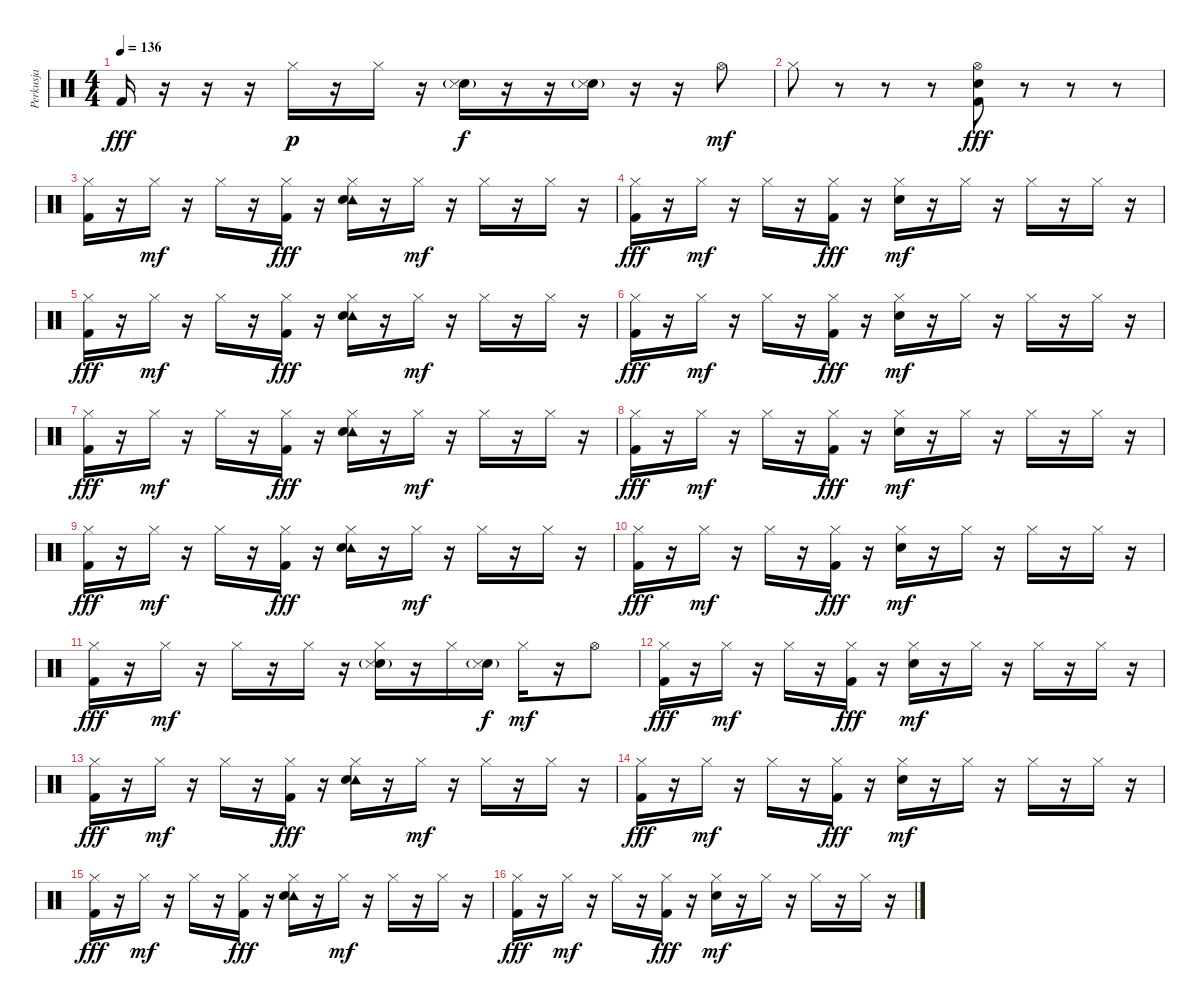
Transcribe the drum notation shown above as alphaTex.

\track ("Perkusja" "Perkusja") {instrument percussion}
\staff {score}
\articulation defaults
\ts (4 4)
\tempo 136
\clef neutral
\ks c "Kick (hit) 2".16{dy fff}
r.16 r.16 r.16 "Hi-Hat (closed)".16{dy p} r.16 "Hi-Hat (closed)".16 r.16 ("Snare (hit) 2"{g} "Snare (side stick) 3").16{dy f} r.16 r.16 ("Snare (hit) 2"{g} "Snare (side stick) 3").16 r.16 r.16 "Hi-Hat (open)".8{dy mf} |
"Hi-Hat (closed)".8 r.8 r.8 r.8 ("Hi-Hat (open)" "Snare (hit) 2" "Kick (hit) 2").8{dy fff} r.8 r.8 r.8 |
("Hi-Hat (closed)" "Kick (hit) 2").16 r.16 "Hi-Hat (closed)".16{dy mf} r.16 "Hi-Hat (closed)".16 r.16 ("Hi-Hat (closed)" "Kick (hit) 2").16{dy fff} r.16 ("Hi-Hat (closed)" "Tambourine (hit)" "Snare (hit) 2").16 r.16 "Hi-Hat (closed)".16{dy mf} r.16 "Hi-Hat (closed)".16 r.16 "Hi-Hat (closed)".16 r.16 |
("Hi-Hat (closed)" "Kick (hit) 2").16{dy fff} r.16 "Hi-Hat (closed)".16{dy mf} r.16 "Hi-Hat (closed)".16 r.16 ("Hi-Hat (closed)" "Kick (hit) 2").16{dy fff} r.16 ("Hi-Hat (closed)" "Snare (hit) 2").16{dy mf} r.16 "Hi-Hat (closed)".16 r.16 "Hi-Hat (closed)".16 r.16 "Hi-Hat (closed)".16 r.16 |
("Hi-Hat (closed)" "Kick (hit) 2").16{dy fff} r.16 "Hi-Hat (closed)".16{dy mf} r.16 "Hi-Hat (closed)".16 r.16 ("Hi-Hat (closed)" "Kick (hit) 2").16{dy fff} r.16 ("Hi-Hat (closed)" "Tambourine (hit)" "Snare (hit) 2").16 r.16 "Hi-Hat (closed)".16{dy mf} r.16 "Hi-Hat (closed)".16 r.16 "Hi-Hat (closed)".16 r.16 |
("Hi-Hat (closed)" "Kick (hit) 2").16{dy fff} r.16 "Hi-Hat (closed)".16{dy mf} r.16 "Hi-Hat (closed)".16 r.16 ("Hi-Hat (closed)" "Kick (hit) 2").16{dy fff} r.16 ("Hi-Hat (closed)" "Snare (hit) 2").16{dy mf} r.16 "Hi-Hat (closed)".16 r.16 "Hi-Hat (closed)".16 r.16 "Hi-Hat (closed)".16 r.16 |
("Hi-Hat (closed)" "Kick (hit) 2").16{dy fff} r.16 "Hi-Hat (closed)".16{dy mf} r.16 "Hi-Hat (closed)".16 r.16 ("Hi-Hat (closed)" "Kick (hit) 2").16{dy fff} r.16 ("Hi-Hat (closed)" "Tambourine (hit)" "Snare (hit) 2").16 r.16 "Hi-Hat (closed)".16{dy mf} r.16 "Hi-Hat (closed)".16 r.16 "Hi-Hat (closed)".16 r.16 |
("Hi-Hat (closed)" "Kick (hit) 2").16{dy fff} r.16 "Hi-Hat (closed)".16{dy mf} r.16 "Hi-Hat (closed)".16 r.16 ("Hi-Hat (closed)" "Kick (hit) 2").16{dy fff} r.16 ("Hi-Hat (closed)" "Snare (hit) 2").16{dy mf} r.16 "Hi-Hat (closed)".16 r.16 "Hi-Hat (closed)".16 r.16 "Hi-Hat (closed)".16 r.16 |
("Hi-Hat (closed)" "Kick (hit) 2").16{dy fff} r.16 "Hi-Hat (closed)".16{dy mf} r.16 "Hi-Hat (closed)".16 r.16 ("Hi-Hat (closed)" "Kick (hit) 2").16{dy fff} r.16 ("Hi-Hat (closed)" "Tambourine (hit)" "Snare (hit) 2").16 r.16 "Hi-Hat (closed)".16{dy mf} r.16 "Hi-Hat (closed)".16 r.16 "Hi-Hat (closed)".16 r.16 |
("Hi-Hat (closed)" "Kick (hit) 2").16{dy fff} r.16 "Hi-Hat (closed)".16{dy mf} r.16 "Hi-Hat (closed)".16 r.16 ("Hi-Hat (closed)" "Kick (hit) 2").16{dy fff} r.16 ("Hi-Hat (closed)" "Snare (hit) 2").16{dy mf} r.16 "Hi-Hat (closed)".16 r.16 "Hi-Hat (closed)".16 r.16 "Hi-Hat (closed)".16 r.16 |
("Hi-Hat (closed)" "Kick (hit) 2").16{dy fff} r.16 "Hi-Hat (closed)".16{dy mf} r.16 "Hi-Hat (closed)".16 r.16 "Hi-Hat (closed)".16 r.16 ("Hi-Hat (closed)" "Snare (hit) 2"{g} "Snare (side stick) 3").16 r.16 "Hi-Hat (closed)".16 ("Snare (hit) 2"{g} "Snare (side stick) 3").16{dy f} "Hi-Hat (closed)".16{dy mf} r.16 "Hi-Hat (open)".8 |
("Hi-Hat (closed)" "Kick (hit) 2").16{dy fff} r.16 "Hi-Hat (closed)".16{dy mf} r.16 "Hi-Hat (closed)".16 r.16 ("Hi-Hat (closed)" "Kick (hit) 2").16{dy fff} r.16 ("Hi-Hat (closed)" "Snare (hit) 2").16{dy mf} r.16 "Hi-Hat (closed)".16 r.16 "Hi-Hat (closed)".16 r.16 "Hi-Hat (closed)".16 r.16 |
("Hi-Hat (closed)" "Kick (hit) 2").16{dy fff} r.16 "Hi-Hat (closed)".16{dy mf} r.16 "Hi-Hat (closed)".16 r.16 ("Hi-Hat (closed)" "Kick (hit) 2").16{dy fff} r.16 ("Hi-Hat (closed)" "Tambourine (hit)" "Snare (hit) 2").16 r.16 "Hi-Hat (closed)".16{dy mf} r.16 "Hi-Hat (closed)".16 r.16 "Hi-Hat (closed)".16 r.16 |
("Hi-Hat (closed)" "Kick (hit) 2").16{dy fff} r.16 "Hi-Hat (closed)".16{dy mf} r.16 "Hi-Hat (closed)".16 r.16 ("Hi-Hat (closed)" "Kick (hit) 2").16{dy fff} r.16 ("Hi-Hat (closed)" "Snare (hit) 2").16{dy mf} r.16 "Hi-Hat (closed)".16 r.16 "Hi-Hat (closed)".16 r.16 "Hi-Hat (closed)".16 r.16 |
("Hi-Hat (closed)" "Kick (hit) 2").16{dy fff} r.16 "Hi-Hat (closed)".16{dy mf} r.16 "Hi-Hat (closed)".16 r.16 ("Hi-Hat (closed)" "Kick (hit) 2").16{dy fff} r.16 ("Hi-Hat (closed)" "Tambourine (hit)" "Snare (hit) 2").16 r.16 "Hi-Hat (closed)".16{dy mf} r.16 "Hi-Hat (closed)".16 r.16 "Hi-Hat (closed)".16 r.16 |
("Hi-Hat (closed)" "Kick (hit) 2").16{dy fff} r.16 "Hi-Hat (closed)".16{dy mf} r.16 "Hi-Hat (closed)".16 r.16 ("Hi-Hat (closed)" "Kick (hit) 2").16{dy fff} r.16 ("Hi-Hat (closed)" "Snare (hit) 2").16{dy mf} r.16 "Hi-Hat (closed)".16 r.16 "Hi-Hat (closed)".16 r.16 "Hi-Hat (closed)".16 r.16
